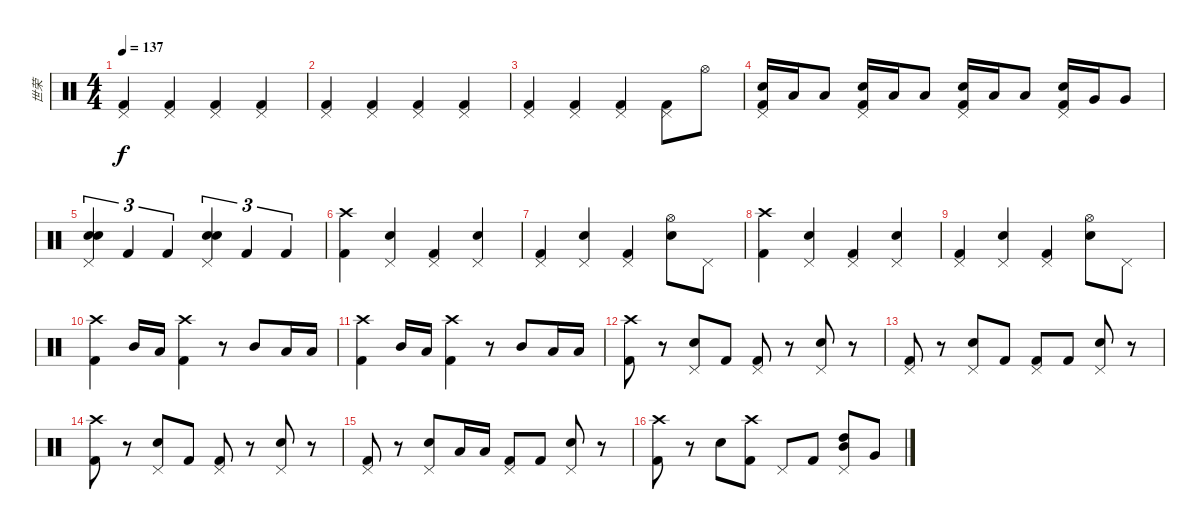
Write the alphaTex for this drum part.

\track ("世荣" "世荣") {instrument percussion}
\staff {score}
\articulation defaults
\ts (4 4)
\tempo 137
\clef neutral
\ks c
("Pedal Hi-Hat (hit)" "Kick (hit) 2").4{dy f} ("Pedal Hi-Hat (hit)" "Kick (hit) 2").4 ("Pedal Hi-Hat (hit)" "Kick (hit) 2").4 ("Pedal Hi-Hat (hit)" "Kick (hit) 2").4 |
("Pedal Hi-Hat (hit)" "Kick (hit) 2").4 ("Pedal Hi-Hat (hit)" "Kick (hit) 2").4 ("Pedal Hi-Hat (hit)" "Kick (hit) 2").4 ("Pedal Hi-Hat (hit)" "Kick (hit) 2").4 |
("Pedal Hi-Hat (hit)" "Kick (hit) 2").4 ("Pedal Hi-Hat (hit)" "Kick (hit) 2").4 ("Pedal Hi-Hat (hit)" "Kick (hit) 2").4 ("Pedal Hi-Hat (hit)" "Kick (hit) 2").8 "Hi-Hat (open)".8 |
("Pedal Hi-Hat (hit)" "Electric Snare (hit)" "Kick (hit) 2").16 "Low Tom (hit)".16 "Low Tom (hit)".8 ("Pedal Hi-Hat (hit)" "Electric Snare (hit)" "Kick (hit) 2").16 "Low Tom (hit)".16 "Low Tom (hit)".8 ("Pedal Hi-Hat (hit)" "Electric Snare (hit)" "Kick (hit) 2").16 "Low Tom (hit)".16 "Low Tom (hit)".8 ("Pedal Hi-Hat (hit)" "Electric Snare (hit)" "Kick (hit) 2").16 "Very Low Tom (hit)".16 "Very Low Tom (hit)".8 |
("Pedal Hi-Hat (hit)" "Electric Snare (hit)" "Electric Snare (hit)").4{tu (3 2)} "Kick (hit) 2".4{tu (3 2)} "Kick (hit) 2".4{tu (3 2)} ("Pedal Hi-Hat (hit)" "Electric Snare (hit)" "Electric Snare (hit)").4{tu (3 2)} "Kick (hit) 2".4{tu (3 2)} "Kick (hit) 2".4{tu (3 2)} |
("Crash high (hit)" "Kick (hit) 2").4 ("Pedal Hi-Hat (hit)" "Electric Snare (hit)").4 ("Pedal Hi-Hat (hit)" "Kick (hit) 2").4 ("Pedal Hi-Hat (hit)" "Electric Snare (hit)").4 |
("Pedal Hi-Hat (hit)" "Kick (hit) 2").4 ("Pedal Hi-Hat (hit)" "Electric Snare (hit)").4 ("Pedal Hi-Hat (hit)" "Kick (hit) 2").4 ("Hi-Hat (open)" "Electric Snare (hit)").8 "Pedal Hi-Hat (hit)".8 |
("Crash high (hit)" "Kick (hit) 2").4 ("Pedal Hi-Hat (hit)" "Electric Snare (hit)").4 ("Pedal Hi-Hat (hit)" "Kick (hit) 2").4 ("Pedal Hi-Hat (hit)" "Electric Snare (hit)").4 |
("Pedal Hi-Hat (hit)" "Kick (hit) 2").4 ("Pedal Hi-Hat (hit)" "Electric Snare (hit)").4 ("Pedal Hi-Hat (hit)" "Kick (hit) 2").4 ("Hi-Hat (open)" "Electric Snare (hit)").8 "Pedal Hi-Hat (hit)".8 |
("Crash high (hit)" "Kick (hit) 2").4 "Mid Tom (hit)".16 "Low Tom (hit)".16 ("Crash high (hit)" "Kick (hit) 2").4 r.8 "Mid Tom (hit)".8 "Low Tom (hit)".16 "Low Tom (hit)".16 |
("Crash high (hit)" "Kick (hit) 2").4 "Mid Tom (hit)".16 "Low Tom (hit)".16 ("Crash high (hit)" "Kick (hit) 2").4 r.8 "Mid Tom (hit)".8 "Low Tom (hit)".16 "Low Tom (hit)".16 |
("Crash high (hit)" "Kick (hit) 2").8 r.8 ("Pedal Hi-Hat (hit)" "Electric Snare (hit)").8 "Kick (hit) 2".8 ("Pedal Hi-Hat (hit)" "Kick (hit) 2").8 r.8 ("Pedal Hi-Hat (hit)" "Electric Snare (hit)").8 r.8 |
("Pedal Hi-Hat (hit)" "Kick (hit) 2").8 r.8 ("Pedal Hi-Hat (hit)" "Electric Snare (hit)").8 "Kick (hit) 2".8 ("Pedal Hi-Hat (hit)" "Kick (hit) 2").8 "Kick (hit) 2".8 ("Pedal Hi-Hat (hit)" "Electric Snare (hit)").8 r.8 |
("Crash high (hit)" "Kick (hit) 2").8 r.8 ("Pedal Hi-Hat (hit)" "Electric Snare (hit)").8 "Kick (hit) 2".8 ("Pedal Hi-Hat (hit)" "Kick (hit) 2").8 r.8 ("Pedal Hi-Hat (hit)" "Electric Snare (hit)").8 r.8 |
("Pedal Hi-Hat (hit)" "Kick (hit) 2").8 r.8 ("Pedal Hi-Hat (hit)" "Electric Snare (hit)").8 "Low Tom (hit)".16 "Low Tom (hit)".16 ("Pedal Hi-Hat (hit)" "Kick (hit) 2").8 "Kick (hit) 2".8 ("Pedal Hi-Hat (hit)" "Electric Snare (hit)").8 r.8 |
("Crash high (hit)" "Kick (hit) 2").8 r.8 "Electric Snare (hit)".8 ("Crash high (hit)" "Kick (hit) 2").8 "Pedal Hi-Hat (hit)".8 "Kick (hit) 2".8 ("Pedal Hi-Hat (hit)" "Mid Tom (hit)" "High Tom (hit)").8 "Very Low Tom (hit)".8
